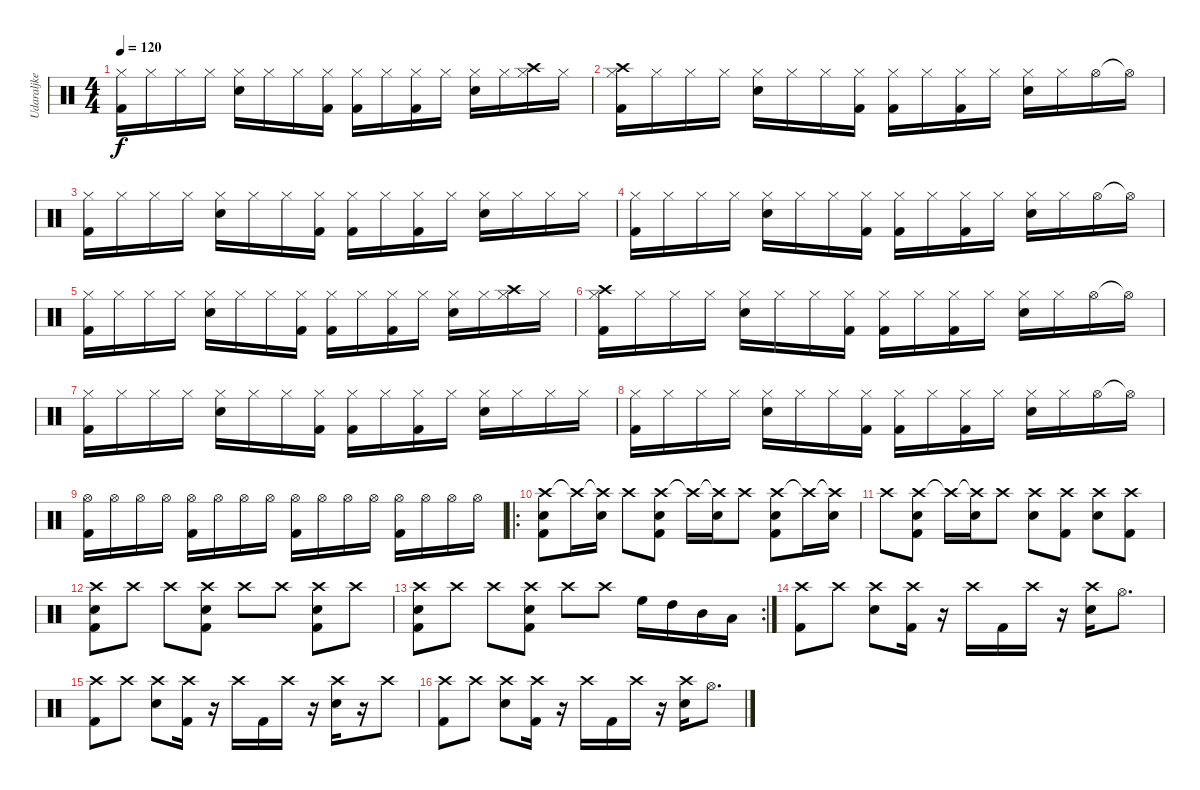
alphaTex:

\track ("Udaraljke" "Udaraljke") {instrument percussion}
\staff {score}
\articulation defaults
\ts (4 4)
\tempo 120
\clef neutral
\ks c
("Hi-Hat (closed)" "Kick (hit) 2").16{dy f} "Hi-Hat (closed)".16 "Hi-Hat (closed)".16 "Hi-Hat (closed)".16 ("Hi-Hat (closed)" "Snare (hit) 2").16 "Hi-Hat (closed)".16 "Hi-Hat (closed)".16 ("Hi-Hat (closed)" "Kick (hit) 2").16 ("Hi-Hat (closed)" "Kick (hit) 2").16 "Hi-Hat (closed)".16 ("Hi-Hat (closed)" "Kick (hit) 2").16 "Hi-Hat (closed)".16 ("Hi-Hat (closed)" "Snare (hit) 2").16 "Hi-Hat (closed)".16 ("Crash high (hit)" "Hi-Hat (closed)").16 "Hi-Hat (closed)".16 |
("Crash high (hit)" "Hi-Hat (closed)" "Kick (hit) 2").16 "Hi-Hat (closed)".16 "Hi-Hat (closed)".16 "Hi-Hat (closed)".16 ("Hi-Hat (closed)" "Snare (hit) 2").16 "Hi-Hat (closed)".16 "Hi-Hat (closed)".16 ("Hi-Hat (closed)" "Kick (hit) 2").16 ("Hi-Hat (closed)" "Kick (hit) 2").16 "Hi-Hat (closed)".16 ("Hi-Hat (closed)" "Kick (hit) 2").16 "Hi-Hat (closed)".16 ("Hi-Hat (closed)" "Snare (hit) 2").16 "Hi-Hat (closed)".16 "Hi-Hat (open)".16 "Hi-Hat (open)"{t}.16 |
("Hi-Hat (closed)" "Kick (hit) 2").16 "Hi-Hat (closed)".16 "Hi-Hat (closed)".16 "Hi-Hat (closed)".16 ("Hi-Hat (closed)" "Snare (hit) 2").16 "Hi-Hat (closed)".16 "Hi-Hat (closed)".16 ("Hi-Hat (closed)" "Kick (hit) 2").16 ("Hi-Hat (closed)" "Kick (hit) 2").16 "Hi-Hat (closed)".16 ("Hi-Hat (closed)" "Kick (hit) 2").16 "Hi-Hat (closed)".16 ("Hi-Hat (closed)" "Snare (hit) 2").16 "Hi-Hat (closed)".16 "Hi-Hat (closed)".16 "Hi-Hat (closed)".16 |
("Hi-Hat (closed)" "Kick (hit) 2").16 "Hi-Hat (closed)".16 "Hi-Hat (closed)".16 "Hi-Hat (closed)".16 ("Hi-Hat (closed)" "Snare (hit) 2").16 "Hi-Hat (closed)".16 "Hi-Hat (closed)".16 ("Hi-Hat (closed)" "Kick (hit) 2").16 ("Hi-Hat (closed)" "Kick (hit) 2").16 "Hi-Hat (closed)".16 ("Hi-Hat (closed)" "Kick (hit) 2").16 "Hi-Hat (closed)".16 ("Hi-Hat (closed)" "Snare (hit) 2").16 "Hi-Hat (closed)".16 "Hi-Hat (open)".16 "Hi-Hat (open)"{t}.16 |
("Hi-Hat (closed)" "Kick (hit) 2").16 "Hi-Hat (closed)".16 "Hi-Hat (closed)".16 "Hi-Hat (closed)".16 ("Hi-Hat (closed)" "Snare (hit) 2").16 "Hi-Hat (closed)".16 "Hi-Hat (closed)".16 ("Hi-Hat (closed)" "Kick (hit) 2").16 ("Hi-Hat (closed)" "Kick (hit) 2").16 "Hi-Hat (closed)".16 ("Hi-Hat (closed)" "Kick (hit) 2").16 "Hi-Hat (closed)".16 ("Hi-Hat (closed)" "Snare (hit) 2").16 "Hi-Hat (closed)".16 ("Crash high (hit)" "Hi-Hat (closed)").16 "Hi-Hat (closed)".16 |
("Crash high (hit)" "Hi-Hat (closed)" "Kick (hit) 2").16 "Hi-Hat (closed)".16 "Hi-Hat (closed)".16 "Hi-Hat (closed)".16 ("Hi-Hat (closed)" "Snare (hit) 2").16 "Hi-Hat (closed)".16 "Hi-Hat (closed)".16 ("Hi-Hat (closed)" "Kick (hit) 2").16 ("Hi-Hat (closed)" "Kick (hit) 2").16 "Hi-Hat (closed)".16 ("Hi-Hat (closed)" "Kick (hit) 2").16 "Hi-Hat (closed)".16 ("Hi-Hat (closed)" "Snare (hit) 2").16 "Hi-Hat (closed)".16 "Hi-Hat (open)".16 "Hi-Hat (open)"{t}.16 |
("Hi-Hat (closed)" "Kick (hit) 2").16 "Hi-Hat (closed)".16 "Hi-Hat (closed)".16 "Hi-Hat (closed)".16 ("Hi-Hat (closed)" "Snare (hit) 2").16 "Hi-Hat (closed)".16 "Hi-Hat (closed)".16 ("Hi-Hat (closed)" "Kick (hit) 2").16 ("Hi-Hat (closed)" "Kick (hit) 2").16 "Hi-Hat (closed)".16 ("Hi-Hat (closed)" "Kick (hit) 2").16 "Hi-Hat (closed)".16 ("Hi-Hat (closed)" "Snare (hit) 2").16 "Hi-Hat (closed)".16 "Hi-Hat (closed)".16 "Hi-Hat (closed)".16 |
("Hi-Hat (closed)" "Kick (hit) 2").16 "Hi-Hat (closed)".16 "Hi-Hat (closed)".16 "Hi-Hat (closed)".16 ("Hi-Hat (closed)" "Snare (hit) 2").16 "Hi-Hat (closed)".16 "Hi-Hat (closed)".16 ("Hi-Hat (closed)" "Kick (hit) 2").16 ("Hi-Hat (closed)" "Kick (hit) 2").16 "Hi-Hat (closed)".16 ("Hi-Hat (closed)" "Kick (hit) 2").16 "Hi-Hat (closed)".16 ("Hi-Hat (closed)" "Snare (hit) 2").16 "Hi-Hat (closed)".16 "Hi-Hat (open)".16 "Hi-Hat (open)"{t}.16 |
("Hi-Hat (open)" "Kick (hit) 2").16 "Hi-Hat (open)".16 "Hi-Hat (open)".16 "Hi-Hat (open)".16 ("Hi-Hat (open)" "Kick (hit) 2").16 "Hi-Hat (open)".16 "Hi-Hat (open)".16 "Hi-Hat (open)".16 ("Hi-Hat (open)" "Kick (hit) 2").16 "Hi-Hat (open)".16 "Hi-Hat (open)".16 "Hi-Hat (open)".16 ("Hi-Hat (open)" "Kick (hit) 2").16 "Hi-Hat (open)".16 "Hi-Hat (open)".16 "Hi-Hat (open)".16 |
\ro
("Crash high (hit)" "Snare (hit) 2" "Kick (hit) 2").8 "Crash high (hit)"{t}.16 ("Crash high (hit)"{t} "Snare (hit) 2").16 "Crash high (hit)".8 ("Crash high (hit)" "Snare (hit) 2" "Kick (hit) 2").8 "Crash high (hit)"{t}.16 ("Crash high (hit)"{t} "Snare (hit) 2").16 "Crash high (hit)".8 ("Crash high (hit)" "Snare (hit) 2" "Kick (hit) 2").8 "Crash high (hit)"{t}.16 ("Crash high (hit)"{t} "Snare (hit) 2").16 |
"Crash high (hit)".8 ("Crash high (hit)" "Snare (hit) 2" "Kick (hit) 2").8 "Crash high (hit)"{t}.16 ("Crash high (hit)"{t} "Snare (hit) 2").16 "Crash high (hit)".8 ("Crash high (hit)" "Snare (hit) 2").8 ("Crash high (hit)" "Kick (hit) 2").8 ("Crash high (hit)" "Snare (hit) 2").8 ("Crash high (hit)" "Kick (hit) 2").8 |
("Crash high (hit)" "Snare (hit) 2" "Kick (hit) 2").8 "Crash high (hit)".8 "Crash high (hit)".8 ("Crash high (hit)" "Snare (hit) 2" "Kick (hit) 2").8 "Crash high (hit)".8 "Crash high (hit)".8 ("Crash high (hit)" "Snare (hit) 2" "Kick (hit) 2").8 "Crash high (hit)".8 |
\rc 2
("Crash high (hit)" "Snare (hit) 2" "Kick (hit) 2").8 "Crash high (hit)".8 "Crash high (hit)".8 ("Crash high (hit)" "Snare (hit) 2" "Kick (hit) 2").8 "Crash high (hit)".8 "Crash high (hit)".8 "High Floor Tom (hit)".16 "High Tom (hit)".16 "Mid Tom (hit)".16 "Low Tom (hit)".16 |
("Crash high (hit)" "Kick (hit) 2").8 "Crash high (hit)".8 ("Crash high (hit)" "Snare (hit) 2").8 ("Crash high (hit)" "Kick (hit) 2").16 r.16 "Crash high (hit)".16 "Kick (hit) 2".16 "Crash high (hit)".16 r.16 ("Crash high (hit)" "Snare (hit) 2").16 "Hi-Hat (open)".8{d} |
("Crash high (hit)" "Kick (hit) 2").8 "Crash high (hit)".8 ("Crash high (hit)" "Snare (hit) 2").8 ("Crash high (hit)" "Kick (hit) 2").16 r.16 "Crash high (hit)".16 "Kick (hit) 2".16 "Crash high (hit)".16 r.16 ("Crash high (hit)" "Snare (hit) 2").16 r.16 "Crash high (hit)".8 |
("Crash high (hit)" "Kick (hit) 2").8 "Crash high (hit)".8 ("Crash high (hit)" "Snare (hit) 2").8 ("Crash high (hit)" "Kick (hit) 2").16 r.16 "Crash high (hit)".16 "Kick (hit) 2".16 "Crash high (hit)".16 r.16 ("Crash high (hit)" "Snare (hit) 2").16 "Hi-Hat (open)".8{d}
